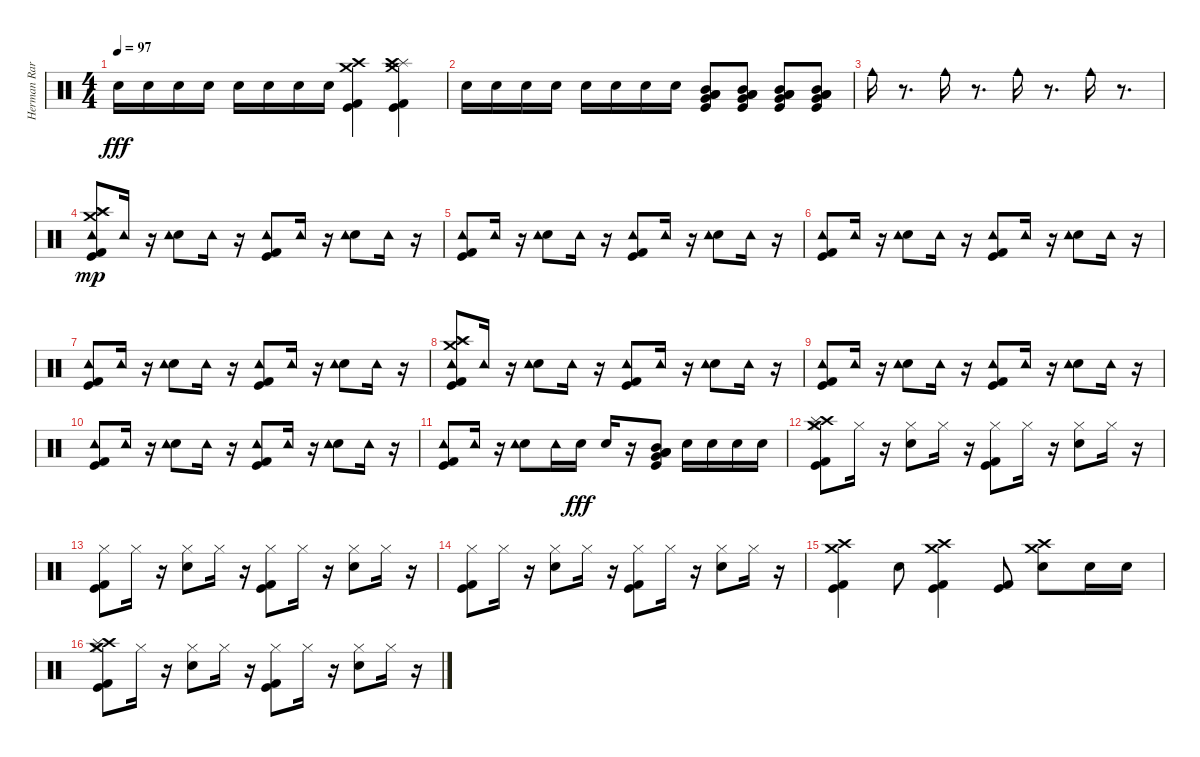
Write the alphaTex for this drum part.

\track ("Herman Rarebel" "Herman Rar") {instrument percussion}
\staff {score}
\articulation defaults
\ts (4 4)
\tempo 97
\clef neutral
\ks c "Snare (hit) 2".16{dy fff} "Snare (hit) 2".16 "Snare (hit) 2".16 "Snare (hit) 2".16 "Snare (hit) 2".16 "Snare (hit) 2".16 "Snare (hit) 2".16 "Snare (hit) 2".16
("Kick (hit) 2" "Kick (hit)" "Crash medium (hit)" "Crash high (hit)").4 ("Kick (hit)" "Kick (hit) 2" "Crash medium (hit)" "Splash (hit)" "Crash high (hit)").4 |
"Snare (hit) 2".16 "Snare (hit) 2".16 "Snare (hit) 2".16 "Snare (hit) 2".16 "Snare (hit) 2".16 "Snare (hit) 2".16 "Snare (hit) 2".16 "Snare (hit) 2".16 ("Mid Tom (hit)" "Low Tom (hit)" "Very Low Tom (hit)" "Low Floor Tom (hit)" "Kick (hit)").8 ("Mid Tom (hit)" "Low Tom (hit)" "Very Low Tom (hit)" "Low Floor Tom (hit)" "Kick (hit)").8 ("Mid Tom (hit)" "Low Tom (hit)" "Very Low Tom (hit)" "Low Floor Tom (hit)" "Kick (hit)").8 ("Mid Tom (hit)" "Low Tom (hit)" "Very Low Tom (hit)" "Low Floor Tom (hit)" "Kick (hit)").8 |
"Cowbell medium (hit)".16 r.8{d} "Cowbell medium (hit)".16 r.8{d} "Cowbell medium (hit)".16 r.8{d} "Cowbell medium (hit)".16 r.8{d} |
("Crash high (hit)" "Splash (hit)" "Crash medium (hit)" "Kick (hit) 2" "Kick (hit)" "Tambourine (hit)").8{dy mp} "Tambourine (hit)".16 r.16 ("Snare (hit) 2" "Tambourine (hit)").8 "Tambourine (hit)".16 r.16 ("Kick (hit) 2" "Kick (hit)" "Tambourine (hit)").8 "Tambourine (hit)".16 r.16 ("Snare (hit) 2" "Tambourine (hit)").8 "Tambourine (hit)".16 r.16 |
("Kick (hit)" "Kick (hit) 2" "Tambourine (hit)").8 "Tambourine (hit)".16 r.16 ("Snare (hit) 2" "Tambourine (hit)").8 "Tambourine (hit)".16 r.16 ("Kick (hit) 2" "Kick (hit)" "Tambourine (hit)").8 "Tambourine (hit)".16 r.16 ("Snare (hit) 2" "Tambourine (hit)").8 "Tambourine (hit)".16 r.16 |
("Kick (hit)" "Kick (hit) 2" "Tambourine (hit)").8 "Tambourine (hit)".16 r.16 ("Snare (hit) 2" "Tambourine (hit)").8 "Tambourine (hit)".16 r.16 ("Kick (hit) 2" "Kick (hit)" "Tambourine (hit)").8 "Tambourine (hit)".16 r.16 ("Snare (hit) 2" "Tambourine (hit)").8 "Tambourine (hit)".16 r.16 |
("Kick (hit)" "Kick (hit) 2" "Tambourine (hit)").8 "Tambourine (hit)".16 r.16 ("Snare (hit) 2" "Tambourine (hit)").8 "Tambourine (hit)".16 r.16 ("Kick (hit) 2" "Kick (hit)" "Tambourine (hit)").8 "Tambourine (hit)".16 r.16 ("Snare (hit) 2" "Tambourine (hit)").8 "Tambourine (hit)".16 r.16 |
("Crash high (hit)" "Splash (hit)" "Crash medium (hit)" "Kick (hit) 2" "Kick (hit)" "Tambourine (hit)").8 "Tambourine (hit)".16 r.16 ("Snare (hit) 2" "Tambourine (hit)").8 "Tambourine (hit)".16 r.16 ("Kick (hit) 2" "Kick (hit)" "Tambourine (hit)").8 "Tambourine (hit)".16 r.16 ("Snare (hit) 2" "Tambourine (hit)").8 "Tambourine (hit)".16 r.16 |
("Kick (hit)" "Kick (hit) 2" "Tambourine (hit)").8 "Tambourine (hit)".16 r.16 ("Snare (hit) 2" "Tambourine (hit)").8 "Tambourine (hit)".16 r.16 ("Kick (hit) 2" "Kick (hit)" "Tambourine (hit)").8 "Tambourine (hit)".16 r.16 ("Snare (hit) 2" "Tambourine (hit)").8 "Tambourine (hit)".16 r.16 |
("Kick (hit)" "Kick (hit) 2" "Tambourine (hit)").8 "Tambourine (hit)".16 r.16 ("Snare (hit) 2" "Tambourine (hit)").8 "Tambourine (hit)".16 r.16 ("Kick (hit) 2" "Kick (hit)" "Tambourine (hit)").8 "Tambourine (hit)".16 r.16 ("Snare (hit) 2" "Tambourine (hit)").8 "Tambourine (hit)".16 r.16 |
("Kick (hit)" "Kick (hit) 2" "Tambourine (hit)").8 "Tambourine (hit)".16 r.16 ("Snare (hit) 2" "Tambourine (hit)").8 "Tambourine (hit)".16 "Snare (hit) 2".16{dy fff} "Snare (hit) 2".16 r.16 ("Mid Tom (hit)" "Low Tom (hit)" "Very Low Tom (hit)" "Low Floor Tom (hit)" "Kick (hit)").8 "Snare (hit) 2".16 "Snare (hit) 2".16 "Snare (hit) 2".16 "Snare (hit) 2".16 |
("Hi-Hat (closed)" "Crash high (hit)" "Splash (hit)" "Crash medium (hit)" "Kick (hit)" "Kick (hit) 2").8 "Hi-Hat (closed)".16 r.16 ("Snare (hit) 2" "Hi-Hat (closed)").8 "Hi-Hat (closed)".16 r.16 ("Kick (hit) 2" "Kick (hit)" "Hi-Hat (closed)").8 "Hi-Hat (closed)".16 r.16 ("Snare (hit) 2" "Hi-Hat (closed)").8 "Hi-Hat (closed)".16 r.16 |
("Hi-Hat (closed)" "Kick (hit)" "Kick (hit) 2").8 "Hi-Hat (closed)".16 r.16 ("Snare (hit) 2" "Hi-Hat (closed)").8 "Hi-Hat (closed)".16 r.16 ("Kick (hit) 2" "Kick (hit)" "Hi-Hat (closed)").8 "Hi-Hat (closed)".16 r.16 ("Snare (hit) 2" "Hi-Hat (closed)").8 "Hi-Hat (closed)".16 r.16 |
("Hi-Hat (closed)" "Kick (hit)" "Kick (hit) 2").8 "Hi-Hat (closed)".16 r.16 ("Snare (hit) 2" "Hi-Hat (closed)").8 "Hi-Hat (closed)".16 r.16 ("Kick (hit) 2" "Kick (hit)" "Hi-Hat (closed)").8 "Hi-Hat (closed)".16 r.16 ("Snare (hit) 2" "Hi-Hat (closed)").8 "Hi-Hat (closed)".16 r.16 |
("Kick (hit) 2" "Kick (hit)" "Crash high (hit)" "Crash medium (hit)").4 "Snare (hit) 2".8 ("Crash medium (hit)" "Crash high (hit)" "Kick (hit)" "Kick (hit) 2").4 ("Kick (hit)" "Kick (hit) 2").8 ("Crash medium (hit)" "Crash high (hit)" "Snare (hit) 2").8 "Snare (hit) 2".16 "Snare (hit) 2".16 |
("Hi-Hat (closed)" "Crash high (hit)" "Splash (hit)" "Crash medium (hit)" "Kick (hit)" "Kick (hit) 2").8 "Hi-Hat (closed)".16 r.16 ("Snare (hit) 2" "Hi-Hat (closed)").8 "Hi-Hat (closed)".16 r.16 ("Kick (hit) 2" "Kick (hit)" "Hi-Hat (closed)").8 "Hi-Hat (closed)".16 r.16 ("Snare (hit) 2" "Hi-Hat (closed)").8 "Hi-Hat (closed)".16 r.16
